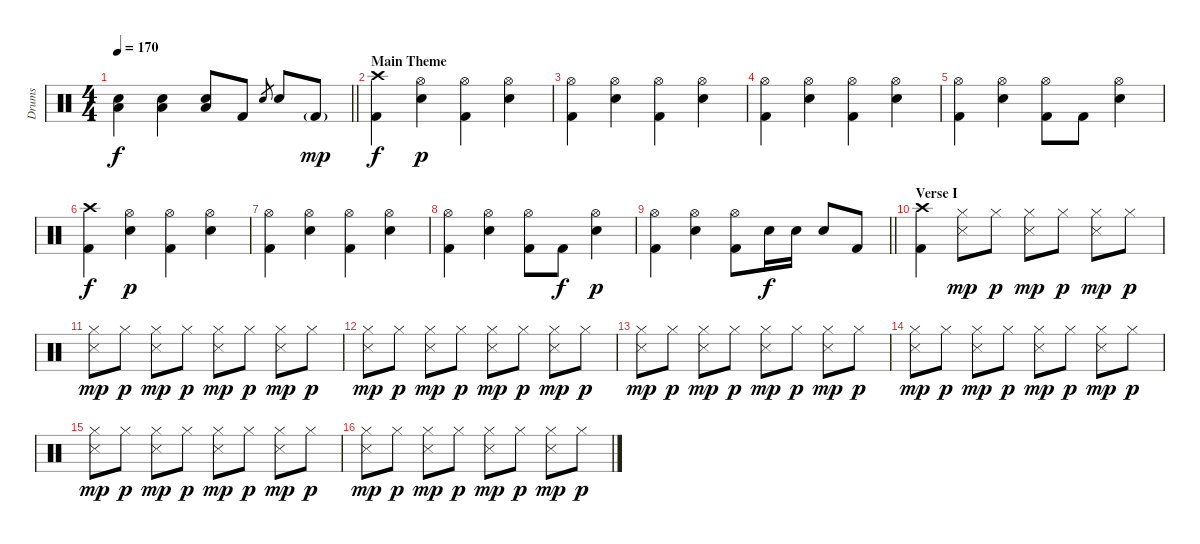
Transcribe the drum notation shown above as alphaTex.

\track ("Drums" "Drums") {instrument percussion}
\staff {score}
\articulation defaults
\ts (4 4)
\tempo 170
\clef neutral
\barLineRight lightlight
\ks c
("Electric Snare (hit)" "Low Tom (hit)").4{dy f} ("Electric Snare (hit)" "Low Tom (hit)").4 ("Electric Snare (hit)" "Low Tom (hit)").8 "Kick (hit) 2".8 "Electric Snare (hit)".8{gr} "Electric Snare (hit)".8 "Kick (hit) 2"{g}.8{dy mp} |
\section ("" "Main Theme")
("Crash high (hit)" "Kick (hit) 2").4{dy f} ("Hi-Hat (open)" "Electric Snare (hit)").4{dy p} ("Hi-Hat (open)" "Kick (hit) 2").4 ("Hi-Hat (open)" "Electric Snare (hit)").4 |
("Hi-Hat (open)" "Kick (hit) 2").4 ("Hi-Hat (open)" "Electric Snare (hit)").4 ("Hi-Hat (open)" "Kick (hit) 2").4 ("Hi-Hat (open)" "Electric Snare (hit)").4 |
("Hi-Hat (open)" "Kick (hit) 2").4 ("Hi-Hat (open)" "Electric Snare (hit)").4 ("Hi-Hat (open)" "Kick (hit) 2").4 ("Hi-Hat (open)" "Electric Snare (hit)").4 |
("Hi-Hat (open)" "Kick (hit) 2").4 ("Hi-Hat (open)" "Electric Snare (hit)").4 ("Hi-Hat (open)" "Kick (hit) 2").8 "Kick (hit) 2".8 ("Hi-Hat (open)" "Electric Snare (hit)").4 |
("Crash high (hit)" "Kick (hit) 2").4{dy f} ("Hi-Hat (open)" "Electric Snare (hit)").4{dy p} ("Hi-Hat (open)" "Kick (hit) 2").4 ("Hi-Hat (open)" "Electric Snare (hit)").4 |
("Hi-Hat (open)" "Kick (hit) 2").4 ("Hi-Hat (open)" "Electric Snare (hit)").4 ("Hi-Hat (open)" "Kick (hit) 2").4 ("Hi-Hat (open)" "Electric Snare (hit)").4 |
("Hi-Hat (open)" "Kick (hit) 2").4 ("Hi-Hat (open)" "Electric Snare (hit)").4 ("Hi-Hat (open)" "Kick (hit) 2").8 "Kick (hit) 2".8{dy f} ("Hi-Hat (open)" "Electric Snare (hit)").4{dy p} |
\barLineRight lightlight
("Hi-Hat (open)" "Kick (hit) 2").4 ("Hi-Hat (open)" "Electric Snare (hit)").4 ("Hi-Hat (open)" "Kick (hit) 2").8 "Electric Snare (hit)".16{dy f} "Electric Snare (hit)".16 "Electric Snare (hit)".8 "Kick (hit) 2".8 |
\section ("" "Verse I")
("Crash high (hit)" "Kick (hit) 2").4 ("Hi-Hat (closed)" "Snare (side stick) 3").8{dy mp} "Hi-Hat (closed)".8{dy p} ("Hi-Hat (closed)" "Snare (side stick) 3").8{dy mp} "Hi-Hat (closed)".8{dy p} ("Hi-Hat (closed)" "Snare (side stick) 3").8{dy mp} "Hi-Hat (closed)".8{dy p} |
("Hi-Hat (closed)" "Snare (side stick) 3").8{dy mp} "Hi-Hat (closed)".8{dy p} ("Hi-Hat (closed)" "Snare (side stick) 3").8{dy mp} "Hi-Hat (closed)".8{dy p} ("Hi-Hat (closed)" "Snare (side stick) 3").8{dy mp} "Hi-Hat (closed)".8{dy p} ("Hi-Hat (closed)" "Snare (side stick) 3").8{dy mp} "Hi-Hat (closed)".8{dy p} |
("Hi-Hat (closed)" "Snare (side stick) 3").8{dy mp} "Hi-Hat (closed)".8{dy p} ("Hi-Hat (closed)" "Snare (side stick) 3").8{dy mp} "Hi-Hat (closed)".8{dy p} ("Hi-Hat (closed)" "Snare (side stick) 3").8{dy mp} "Hi-Hat (closed)".8{dy p} ("Hi-Hat (closed)" "Snare (side stick) 3").8{dy mp} "Hi-Hat (closed)".8{dy p} |
("Hi-Hat (closed)" "Snare (side stick) 3").8{dy mp} "Hi-Hat (closed)".8{dy p} ("Hi-Hat (closed)" "Snare (side stick) 3").8{dy mp} "Hi-Hat (closed)".8{dy p} ("Hi-Hat (closed)" "Snare (side stick) 3").8{dy mp} "Hi-Hat (closed)".8{dy p} ("Hi-Hat (closed)" "Snare (side stick) 3").8{dy mp} "Hi-Hat (closed)".8{dy p} |
("Hi-Hat (closed)" "Snare (side stick) 3").8{dy mp} "Hi-Hat (closed)".8{dy p} ("Hi-Hat (closed)" "Snare (side stick) 3").8{dy mp} "Hi-Hat (closed)".8{dy p} ("Hi-Hat (closed)" "Snare (side stick) 3").8{dy mp} "Hi-Hat (closed)".8{dy p} ("Hi-Hat (closed)" "Snare (side stick) 3").8{dy mp} "Hi-Hat (closed)".8{dy p} |
("Hi-Hat (closed)" "Snare (side stick) 3").8{dy mp} "Hi-Hat (closed)".8{dy p} ("Hi-Hat (closed)" "Snare (side stick) 3").8{dy mp} "Hi-Hat (closed)".8{dy p} ("Hi-Hat (closed)" "Snare (side stick) 3").8{dy mp} "Hi-Hat (closed)".8{dy p} ("Hi-Hat (closed)" "Snare (side stick) 3").8{dy mp} "Hi-Hat (closed)".8{dy p} |
("Hi-Hat (closed)" "Snare (side stick) 3").8{dy mp} "Hi-Hat (closed)".8{dy p} ("Hi-Hat (closed)" "Snare (side stick) 3").8{dy mp} "Hi-Hat (closed)".8{dy p} ("Hi-Hat (closed)" "Snare (side stick) 3").8{dy mp} "Hi-Hat (closed)".8{dy p} ("Hi-Hat (closed)" "Snare (side stick) 3").8{dy mp} "Hi-Hat (closed)".8{dy p}
